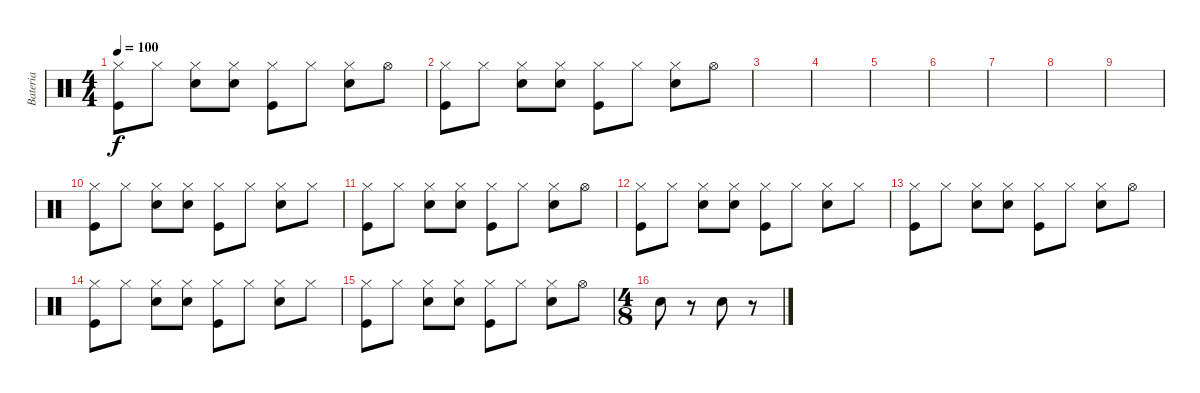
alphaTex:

\track ("Bateria" "Bateria") {instrument percussion}
\staff {score}
\articulation defaults
\ts (4 4)
\tempo 100
\clef neutral
\ks c
("Hi-Hat (closed)" "Kick (hit)").8{dy f} "Hi-Hat (closed)".8 ("Hi-Hat (closed)" "Snare (hit) 2").8 ("Hi-Hat (closed)" "Snare (hit) 2").8 ("Hi-Hat (closed)" "Kick (hit)").8 "Hi-Hat (closed)".8 ("Hi-Hat (closed)" "Snare (hit) 2").8 "Hi-Hat (open)".8 |
("Hi-Hat (closed)" "Kick (hit)").8 "Hi-Hat (closed)".8 ("Hi-Hat (closed)" "Snare (hit) 2").8 ("Hi-Hat (closed)" "Snare (hit) 2").8 ("Hi-Hat (closed)" "Kick (hit)").8 "Hi-Hat (closed)".8 ("Hi-Hat (closed)" "Snare (hit) 2").8 "Hi-Hat (open)".8 |
|
|
|
|
|
|
|
("Hi-Hat (closed)" "Kick (hit)").8 "Hi-Hat (closed)".8 ("Hi-Hat (closed)" "Snare (hit) 2").8 ("Hi-Hat (closed)" "Snare (hit) 2").8 ("Hi-Hat (closed)" "Kick (hit)").8 "Hi-Hat (closed)".8 ("Hi-Hat (closed)" "Snare (hit) 2").8 "Hi-Hat (closed)".8 |
("Hi-Hat (closed)" "Kick (hit)").8 "Hi-Hat (closed)".8 ("Hi-Hat (closed)" "Snare (hit) 2").8 ("Hi-Hat (closed)" "Snare (hit) 2").8 ("Hi-Hat (closed)" "Kick (hit)").8 "Hi-Hat (closed)".8 ("Hi-Hat (closed)" "Snare (hit) 2").8 "Hi-Hat (open)".8 |
("Hi-Hat (closed)" "Kick (hit)").8 "Hi-Hat (closed)".8 ("Hi-Hat (closed)" "Snare (hit) 2").8 ("Hi-Hat (closed)" "Snare (hit) 2").8 ("Hi-Hat (closed)" "Kick (hit)").8 "Hi-Hat (closed)".8 ("Hi-Hat (closed)" "Snare (hit) 2").8 "Hi-Hat (closed)".8 |
("Hi-Hat (closed)" "Kick (hit)").8 "Hi-Hat (closed)".8 ("Hi-Hat (closed)" "Snare (hit) 2").8 ("Hi-Hat (closed)" "Snare (hit) 2").8 ("Hi-Hat (closed)" "Kick (hit)").8 "Hi-Hat (closed)".8 ("Hi-Hat (closed)" "Snare (hit) 2").8 "Hi-Hat (open)".8 |
("Hi-Hat (closed)" "Kick (hit)").8 "Hi-Hat (closed)".8 ("Hi-Hat (closed)" "Snare (hit) 2").8 ("Hi-Hat (closed)" "Snare (hit) 2").8 ("Hi-Hat (closed)" "Kick (hit)").8 "Hi-Hat (closed)".8 ("Hi-Hat (closed)" "Snare (hit) 2").8 "Hi-Hat (closed)".8 |
("Hi-Hat (closed)" "Kick (hit)").8 "Hi-Hat (closed)".8 ("Hi-Hat (closed)" "Snare (hit) 2").8 ("Hi-Hat (closed)" "Snare (hit) 2").8 ("Hi-Hat (closed)" "Kick (hit)").8 "Hi-Hat (closed)".8 ("Hi-Hat (closed)" "Snare (hit) 2").8 "Hi-Hat (open)".8 |
\ts (4 8)
"Snare (hit) 2".8 r.8 "Snare (hit) 2".8 r.8
